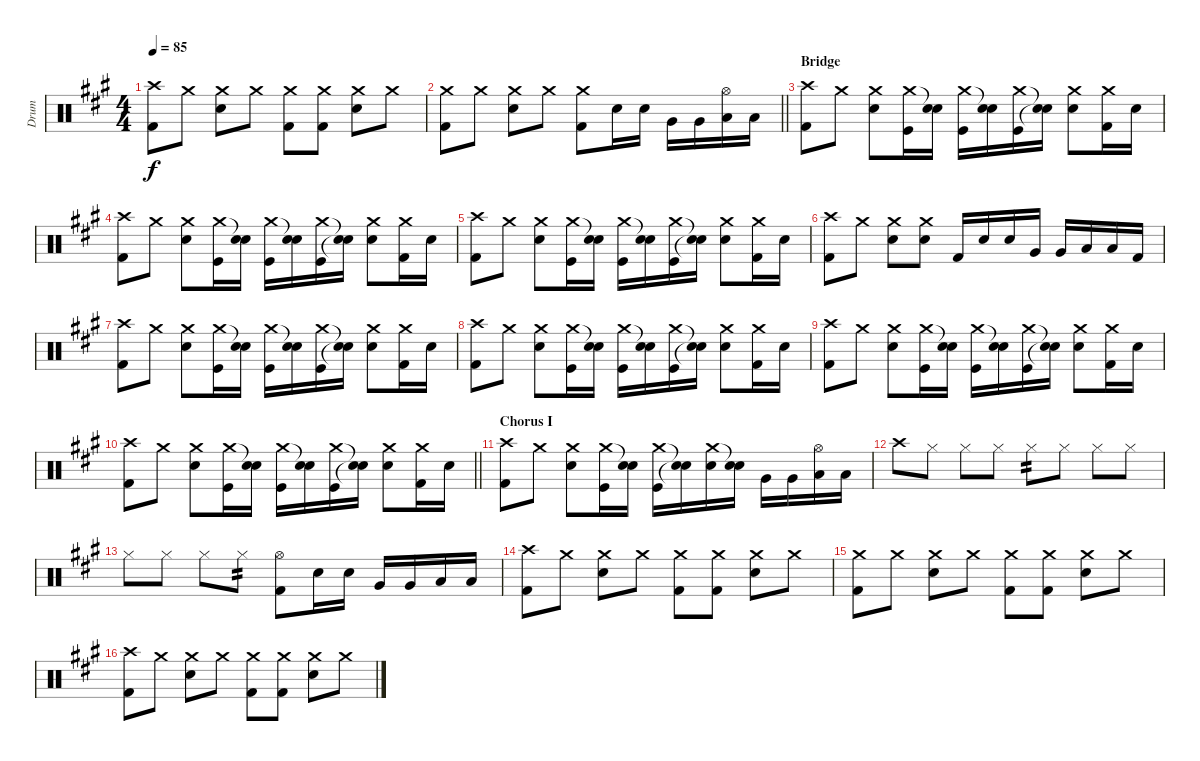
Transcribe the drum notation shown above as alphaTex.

\track ("Drum" "Drum") {instrument percussion}
\staff {score}
\articulation defaults
\ts (4 4)
\tempo 85
\clef neutral
\ks a
("Crash high (hit)" "Kick (hit) 2").8{dy f} "Crash medium (hit)".8 ("Crash medium (hit)" "Snare (hit) 2").8 "Crash medium (hit)".8 ("Crash medium (hit)" "Kick (hit) 2").8 ("Crash medium (hit)" "Kick (hit) 2").8 ("Crash medium (hit)" "Snare (hit) 2").8 "Crash medium (hit)".8 |
\barLineRight lightlight
("Crash medium (hit)" "Kick (hit) 2").8 "Crash medium (hit)".8 ("Crash medium (hit)" "Snare (hit) 2").8 "Crash medium (hit)".8 ("Crash medium (hit)" "Kick (hit) 2").8 "Snare (hit) 2".16 "Snare (hit) 2".16 "Very Low Tom (hit)".16 "Very Low Tom (hit)".16 ("Hi-Hat (open)" "Low Floor Tom (hit)").16 "Low Floor Tom (hit)".16 |
\section ("" "Bridge")
("Crash high (hit)" "Kick (hit) 2").8 "Crash medium (hit)".8 ("Crash medium (hit)" "Snare (hit) 2").8 ("Crash medium (hit)" "Kick (hit)").16 ("Snare (hit) 2"{t} "Snare (hit) 2").16 ("Crash medium (hit)" "Kick (hit)").16 ("Snare (hit) 2"{t} "Snare (hit) 2").16 ("Crash medium (hit)" "Kick (hit)").16 ("Snare (hit) 2"{t} "Snare (hit)"{t}).16 ("Crash medium (hit)" "Snare (hit) 2").8 ("Crash medium (hit)" "Kick (hit) 2").16 "Snare (hit) 2".16 |
("Crash high (hit)" "Kick (hit) 2").8 "Crash medium (hit)".8 ("Crash medium (hit)" "Snare (hit) 2").8 ("Crash medium (hit)" "Kick (hit)").16 ("Snare (hit) 2"{t} "Snare (hit) 2").16 ("Crash medium (hit)" "Kick (hit)").16 ("Snare (hit) 2"{t} "Snare (hit) 2").16 ("Crash medium (hit)" "Kick (hit)").16 ("Snare (hit) 2"{t} "Snare (hit)"{t}).16 ("Crash medium (hit)" "Snare (hit) 2").8 ("Crash medium (hit)" "Kick (hit) 2").16 "Snare (hit) 2".16 |
("Crash high (hit)" "Kick (hit) 2").8 "Crash medium (hit)".8 ("Crash medium (hit)" "Snare (hit) 2").8 ("Crash medium (hit)" "Kick (hit)").16 ("Snare (hit) 2"{t} "Snare (hit) 2").16 ("Crash medium (hit)" "Kick (hit)").16 ("Snare (hit) 2"{t} "Snare (hit) 2").16 ("Crash medium (hit)" "Kick (hit)").16 ("Snare (hit) 2"{t} "Snare (hit)"{t}).16 ("Crash medium (hit)" "Snare (hit) 2").8 ("Crash medium (hit)" "Kick (hit) 2").16 "Snare (hit) 2".16 |
("Crash high (hit)" "Kick (hit) 2").8 "Crash medium (hit)".8 ("Snare (hit) 2" "Crash medium (hit)").8 ("Snare (hit) 2" "Crash medium (hit)").8 "Kick (hit) 2".16 "Snare (hit) 2".16 "Snare (hit) 2".16 "Very Low Tom (hit)".16 "Very Low Tom (hit)".16 "Low Floor Tom (hit)".16 "Low Floor Tom (hit)".16 "Kick (hit) 2".16 |
("Crash high (hit)" "Kick (hit) 2").8 "Crash medium (hit)".8 ("Crash medium (hit)" "Snare (hit) 2").8 ("Crash medium (hit)" "Kick (hit)").16 ("Snare (hit) 2"{t} "Snare (hit) 2").16 ("Crash medium (hit)" "Kick (hit)").16 ("Snare (hit) 2"{t} "Snare (hit) 2").16 ("Crash medium (hit)" "Kick (hit)").16 ("Snare (hit) 2"{t} "Snare (hit)"{t}).16 ("Crash medium (hit)" "Snare (hit) 2").8 ("Crash medium (hit)" "Kick (hit) 2").16 "Snare (hit) 2".16 |
("Crash high (hit)" "Kick (hit) 2").8 "Crash medium (hit)".8 ("Crash medium (hit)" "Snare (hit) 2").8 ("Crash medium (hit)" "Kick (hit)").16 ("Snare (hit) 2"{t} "Snare (hit) 2").16 ("Crash medium (hit)" "Kick (hit)").16 ("Snare (hit) 2"{t} "Snare (hit) 2").16 ("Crash medium (hit)" "Kick (hit)").16 ("Snare (hit) 2"{t} "Snare (hit)"{t}).16 ("Crash medium (hit)" "Snare (hit) 2").8 ("Crash medium (hit)" "Kick (hit) 2").16 "Snare (hit) 2".16 |
("Crash high (hit)" "Kick (hit) 2").8 "Crash medium (hit)".8 ("Crash medium (hit)" "Snare (hit) 2").8 ("Crash medium (hit)" "Kick (hit)").16 ("Snare (hit) 2"{t} "Snare (hit) 2").16 ("Crash medium (hit)" "Kick (hit)").16 ("Snare (hit) 2"{t} "Snare (hit) 2").16 ("Crash medium (hit)" "Kick (hit)").16 ("Snare (hit) 2"{t} "Snare (hit)"{t}).16 ("Crash medium (hit)" "Snare (hit) 2").8 ("Crash medium (hit)" "Kick (hit) 2").16 "Snare (hit) 2".16 |
\barLineRight lightlight
("Crash high (hit)" "Kick (hit) 2").8 "Crash medium (hit)".8 ("Crash medium (hit)" "Snare (hit) 2").8 ("Crash medium (hit)" "Kick (hit)").16 ("Snare (hit) 2"{t} "Snare (hit) 2").16 ("Crash medium (hit)" "Kick (hit)").16 ("Snare (hit) 2"{t} "Snare (hit) 2").16 ("Crash medium (hit)" "Kick (hit)").16 ("Snare (hit) 2"{t} "Snare (hit)"{t}).16 ("Crash medium (hit)" "Snare (hit) 2").8 ("Crash medium (hit)" "Kick (hit) 2").16 "Snare (hit) 2".16 |
\section ("" "Chorus I")
("Crash high (hit)" "Kick (hit) 2").8 "Crash medium (hit)".8 ("Crash medium (hit)" "Snare (hit) 2").8 ("Crash medium (hit)" "Kick (hit)").16 ("Snare (hit) 2"{t} "Snare (hit) 2").16 ("Crash medium (hit)" "Kick (hit)").16 ("Snare (hit) 2"{t} "Snare (hit) 2"{t}).16 ("Crash medium (hit)" "Snare (hit) 2").16 ("Snare (hit) 2"{t} "Snare (hit) 2").16 "Very Low Tom (hit)".16 "Very Low Tom (hit)".16 ("Hi-Hat (open)" "Low Floor Tom (hit)").16 "Low Floor Tom (hit)".16 |
"Crash high (hit)".8 "Hi-Hat (closed)".8 "Hi-Hat (closed)".8 "Hi-Hat (closed)".8 "Hi-Hat (closed)".8{tp 2} "Hi-Hat (closed)".8 "Hi-Hat (closed)".8 "Hi-Hat (closed)".8 |
"Hi-Hat (closed)".8 "Hi-Hat (closed)".8 "Hi-Hat (closed)".8 "Hi-Hat (closed)".8{tp 2} ("Hi-Hat (open)" "Kick (hit) 2").8 "Snare (hit) 2".16 "Snare (hit) 2".16 "Very Low Tom (hit)".16 "Very Low Tom (hit)".16 "Low Floor Tom (hit)".16 "Low Floor Tom (hit)".16 |
("Crash high (hit)" "Kick (hit) 2").8 "Crash medium (hit)".8 ("Snare (hit) 2" "Crash medium (hit)").8 "Crash medium (hit)".8 ("Kick (hit) 2" "Crash medium (hit)").8 ("Kick (hit) 2" "Crash medium (hit)").8 ("Snare (hit) 2" "Crash medium (hit)").8 "Crash medium (hit)".8 |
("Crash medium (hit)" "Kick (hit) 2").8 "Crash medium (hit)".8 ("Snare (hit) 2" "Crash medium (hit)").8 "Crash medium (hit)".8 ("Kick (hit) 2" "Crash medium (hit)").8 ("Kick (hit) 2" "Crash medium (hit)").8 ("Snare (hit) 2" "Crash medium (hit)").8 "Crash medium (hit)".8 |
("Crash high (hit)" "Kick (hit) 2").8 "Crash medium (hit)".8 ("Snare (hit) 2" "Crash medium (hit)").8 "Crash medium (hit)".8 ("Crash medium (hit)" "Kick (hit) 2").8 ("Crash medium (hit)" "Kick (hit) 2").8 ("Crash medium (hit)" "Snare (hit) 2").8 "Crash medium (hit)".8
